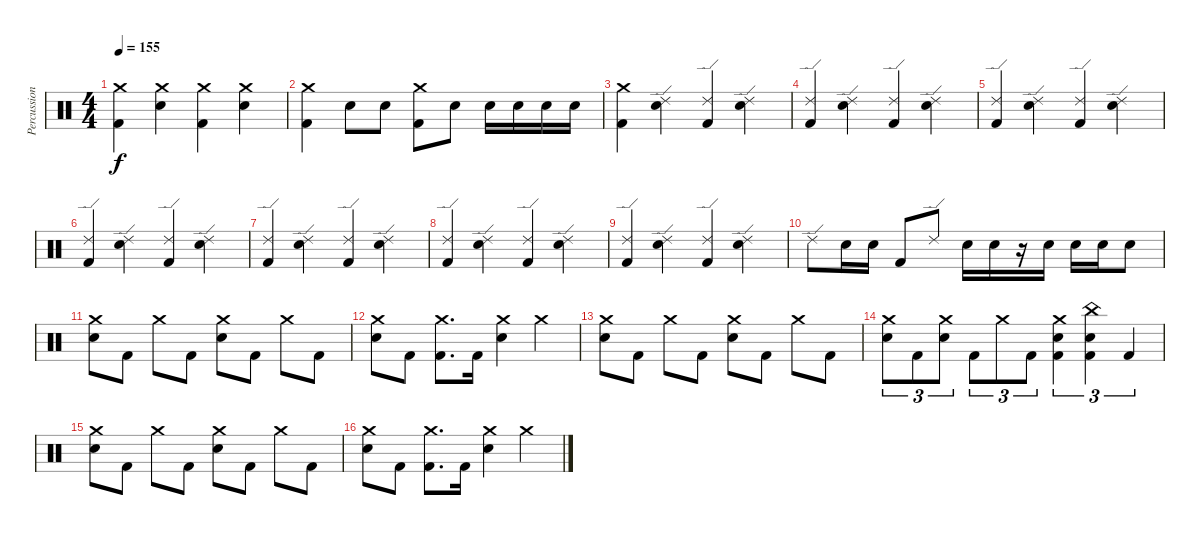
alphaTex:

\track ("Percussion" "Percussion") {instrument percussion}
\staff {score}
\articulation defaults
\ts (4 4)
\tempo 155
\clef neutral
\ks c
("Crash medium (hit)" "Kick (hit) 2").4{dy f} ("Crash medium (hit)" "Electric Snare (hit)").4 ("Crash medium (hit)" "Kick (hit) 2").4 ("Crash medium (hit)" "Electric Snare (hit)").4 |
("Crash medium (hit)" "Kick (hit) 2").4 "Electric Snare (hit)".8 "Electric Snare (hit)".8 ("Crash medium (hit)" "Kick (hit) 2").8 "Electric Snare (hit)".8 "Electric Snare (hit)".16 "Electric Snare (hit)".16 "Electric Snare (hit)".16 "Electric Snare (hit)".16 |
("Crash medium (hit)" "Kick (hit) 2").4 ("Ride (edge) 2" "Electric Snare (hit)").4 ("Ride (edge) 2" "Kick (hit) 2").4 ("Ride (edge) 2" "Electric Snare (hit)").4 |
("Ride (edge) 2" "Kick (hit) 2").4 ("Ride (edge) 2" "Electric Snare (hit)").4 ("Ride (edge) 2" "Kick (hit) 2").4 ("Ride (edge) 2" "Electric Snare (hit)").4 |
("Ride (edge) 2" "Kick (hit) 2").4 ("Ride (edge) 2" "Electric Snare (hit)").4 ("Ride (edge) 2" "Kick (hit) 2").4 ("Ride (edge) 2" "Electric Snare (hit)").4 |
("Ride (edge) 2" "Kick (hit) 2").4 ("Ride (edge) 2" "Electric Snare (hit)").4 ("Ride (edge) 2" "Kick (hit) 2").4 ("Ride (edge) 2" "Electric Snare (hit)").4 |
("Ride (edge) 2" "Kick (hit) 2").4 ("Ride (edge) 2" "Electric Snare (hit)").4 ("Ride (edge) 2" "Kick (hit) 2").4 ("Ride (edge) 2" "Electric Snare (hit)").4 |
("Ride (edge) 2" "Kick (hit) 2").4 ("Ride (edge) 2" "Electric Snare (hit)").4 ("Ride (edge) 2" "Kick (hit) 2").4 ("Ride (edge) 2" "Electric Snare (hit)").4 |
("Ride (edge) 2" "Kick (hit) 2").4 ("Ride (edge) 2" "Electric Snare (hit)").4 ("Ride (edge) 2" "Kick (hit) 2").4 ("Ride (edge) 2" "Electric Snare (hit)").4 |
"Ride (edge) 2".8 "Electric Snare (hit)".16 "Electric Snare (hit)".16 "Kick (hit) 2".8 "Ride (edge) 2".8 "Electric Snare (hit)".16 "Electric Snare (hit)".16 r.16 "Electric Snare (hit)".16 "Electric Snare (hit)".16 "Electric Snare (hit)".16 "Electric Snare (hit)".8 |
("Crash medium (hit)" "Electric Snare (hit)").8 "Kick (hit) 2".8 "Crash medium (hit)".8 "Kick (hit) 2".8 ("Crash medium (hit)" "Electric Snare (hit)").8 "Kick (hit) 2".8 "Crash medium (hit)".8 "Kick (hit) 2".8 |
("Crash medium (hit)" "Electric Snare (hit)").8 "Kick (hit) 2".8 ("Crash medium (hit)" "Kick (hit) 2").8{d} "Kick (hit) 2".16 ("Crash medium (hit)" "Electric Snare (hit)").4 "Crash medium (hit)".4 |
("Crash medium (hit)" "Electric Snare (hit)").8 "Kick (hit) 2".8 "Crash medium (hit)".8 "Kick (hit) 2".8 ("Crash medium (hit)" "Electric Snare (hit)").8 "Kick (hit) 2".8 "Crash medium (hit)".8 "Kick (hit) 2".8 |
("Crash medium (hit)" "Electric Snare (hit)").8{tu (3 2)} "Kick (hit) 2".8{tu (3 2)} ("Crash medium (hit)" "Electric Snare (hit)").8{tu (3 2)} "Kick (hit) 2".8{tu (3 2)} "Crash medium (hit)".8{tu (3 2)} "Kick (hit) 2".8{tu (3 2)} ("Crash medium (hit)" "Electric Snare (hit)" "Kick (hit) 2").4{tu (3 2)} ("China (hit)" "Electric Snare (hit)" "Kick (hit) 2").4{tu (3 2)} "Kick (hit) 2".4{tu (3 2)} |
("Crash medium (hit)" "Electric Snare (hit)").8 "Kick (hit) 2".8 "Crash medium (hit)".8 "Kick (hit) 2".8 ("Crash medium (hit)" "Electric Snare (hit)").8 "Kick (hit) 2".8 "Crash medium (hit)".8 "Kick (hit) 2".8 |
("Crash medium (hit)" "Electric Snare (hit)").8 "Kick (hit) 2".8 ("Crash medium (hit)" "Kick (hit) 2").8{d} "Kick (hit) 2".16 ("Crash medium (hit)" "Electric Snare (hit)").4 "Crash medium (hit)".4
